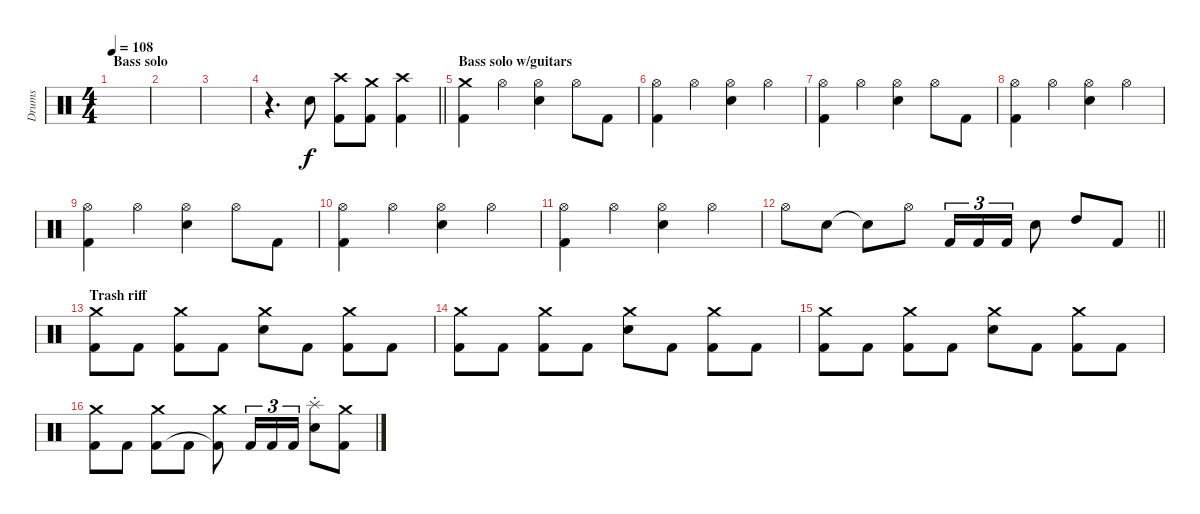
\track ("Drums" "Drums") {instrument percussion}
\staff {score}
\articulation defaults
\ts (4 4)
\section ("" "Bass solo")
\tempo 108
\clef neutral
\ks c
|
|
|
\barLineRight lightlight
r.4{d} "Snare (hit) 2".8 ("Crash high (hit)" "Kick (hit) 2").8 ("Crash medium (hit)" "Kick (hit) 2").8 ("Crash high (hit)" "Kick (hit) 2").4 |
\section ("" "Bass solo w/guitars")
("Crash medium (hit)" "Kick (hit) 2").4 "Hi-Hat (open)".4 ("Hi-Hat (open)" "Snare (hit) 2").4 "Hi-Hat (open)".8 "Kick (hit) 2".8 |
("Hi-Hat (open)" "Kick (hit) 2").4 "Hi-Hat (open)".4 ("Hi-Hat (open)" "Snare (hit) 2").4 "Hi-Hat (open)".4 |
("Hi-Hat (open)" "Kick (hit) 2").4 "Hi-Hat (open)".4 ("Hi-Hat (open)" "Snare (hit) 2").4 "Hi-Hat (open)".8 "Kick (hit) 2".8 |
("Hi-Hat (open)" "Kick (hit) 2").4 "Hi-Hat (open)".4 ("Hi-Hat (open)" "Snare (hit) 2").4 "Hi-Hat (open)".4 |
("Hi-Hat (open)" "Kick (hit) 2").4 "Hi-Hat (open)".4 ("Hi-Hat (open)" "Snare (hit) 2").4 "Hi-Hat (open)".8 "Kick (hit) 2".8 |
("Hi-Hat (open)" "Kick (hit) 2").4 "Hi-Hat (open)".4 ("Hi-Hat (open)" "Snare (hit) 2").4 "Hi-Hat (open)".4 |
("Hi-Hat (open)" "Kick (hit) 2").4 "Hi-Hat (open)".4 ("Hi-Hat (open)" "Snare (hit) 2").4 "Hi-Hat (open)".4 |
\barLineRight lightlight "Hi-Hat (open)".8 "Snare (hit) 2".8 "Snare (hit) 2"{t}.8 "Hi-Hat (open)".8 "Kick (hit) 2".16{tu (3 2)} "Kick (hit) 2".16{tu (3 2)} "Kick (hit) 2".16{tu (3 2)} "Snare (hit) 2".8 "High Tom (hit)".8 "Kick (hit) 2".8
|
\section ("" "Trash riff")
("Crash medium (hit)" "Kick (hit) 2").8 "Kick (hit) 2".8 ("Crash medium (hit)" "Kick (hit) 2").8 "Kick (hit) 2".8 ("Crash medium (hit)" "Snare (hit) 2").8 "Kick (hit) 2".8 ("Crash medium (hit)" "Kick (hit) 2").8 "Kick (hit) 2".8 |
("Crash medium (hit)" "Kick (hit) 2").8 "Kick (hit) 2".8 ("Crash medium (hit)" "Kick (hit) 2").8 "Kick (hit) 2".8 ("Crash medium (hit)" "Snare (hit) 2").8 "Kick (hit) 2".8 ("Crash medium (hit)" "Kick (hit) 2").8 "Kick (hit) 2".8 |
("Crash medium (hit)" "Kick (hit) 2").8 "Kick (hit) 2".8 ("Crash medium (hit)" "Kick (hit) 2").8 "Kick (hit) 2".8 ("Crash medium (hit)" "Snare (hit) 2").8 "Kick (hit) 2".8 ("Crash medium (hit)" "Kick (hit) 2").8 "Kick (hit) 2".8 |
("Crash medium (hit)" "Kick (hit) 2").8 "Kick (hit) 2".8 ("Crash medium (hit)" "Kick (hit) 2").8 "Kick (hit) 2".8 ("Crash medium (hit)" "Kick (hit) 2"{t}).8 "Kick (hit) 2".16{tu (3 2)} "Kick (hit) 2".16{tu (3 2)} "Kick (hit) 2".16{tu (3 2)} ("Splash (hit)"{st} "Snare (hit) 2").8 ("Crash medium (hit)" "Kick (hit) 2").8
